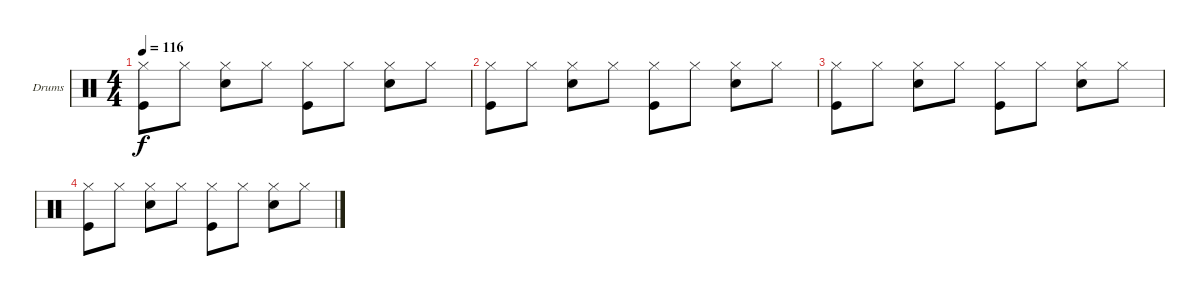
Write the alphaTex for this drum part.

\bracketExtendMode groupsimilarinstruments
\firstSystemTrackNameOrientation horizontal
\otherSystemsTrackNameOrientation horizontal
\track ("Drumkit" "Drums") {instrument percussion}
\staff {score}
\articulation defaults
\ts (4 4)
\tempo 116
\clef neutral
\ks c
("Hi-Hat (closed)" "Kick (hit)").8{dy f} "Hi-Hat (closed)".8 ("Hi-Hat (closed)" "Snare (hit) 2").8 "Hi-Hat (closed)".8 ("Hi-Hat (closed)" "Kick (hit)").8 "Hi-Hat (closed)".8 ("Hi-Hat (closed)" "Snare (hit) 2").8 "Hi-Hat (closed)".8 |
("Hi-Hat (closed)" "Kick (hit)").8 "Hi-Hat (closed)".8 ("Hi-Hat (closed)" "Snare (hit) 2").8 "Hi-Hat (closed)".8 ("Hi-Hat (closed)" "Kick (hit)").8 "Hi-Hat (closed)".8 ("Hi-Hat (closed)" "Snare (hit) 2").8 "Hi-Hat (closed)".8 |
("Hi-Hat (closed)" "Kick (hit)").8 "Hi-Hat (closed)".8 ("Hi-Hat (closed)" "Snare (hit) 2").8 "Hi-Hat (closed)".8 ("Hi-Hat (closed)" "Kick (hit)").8 "Hi-Hat (closed)".8 ("Hi-Hat (closed)" "Snare (hit) 2").8 "Hi-Hat (closed)".8 |
("Hi-Hat (closed)" "Kick (hit)").8 "Hi-Hat (closed)".8 ("Hi-Hat (closed)" "Snare (hit) 2").8 "Hi-Hat (closed)".8 ("Hi-Hat (closed)" "Kick (hit)").8 "Hi-Hat (closed)".8 ("Hi-Hat (closed)" "Snare (hit) 2").8 "Hi-Hat (closed)".8
